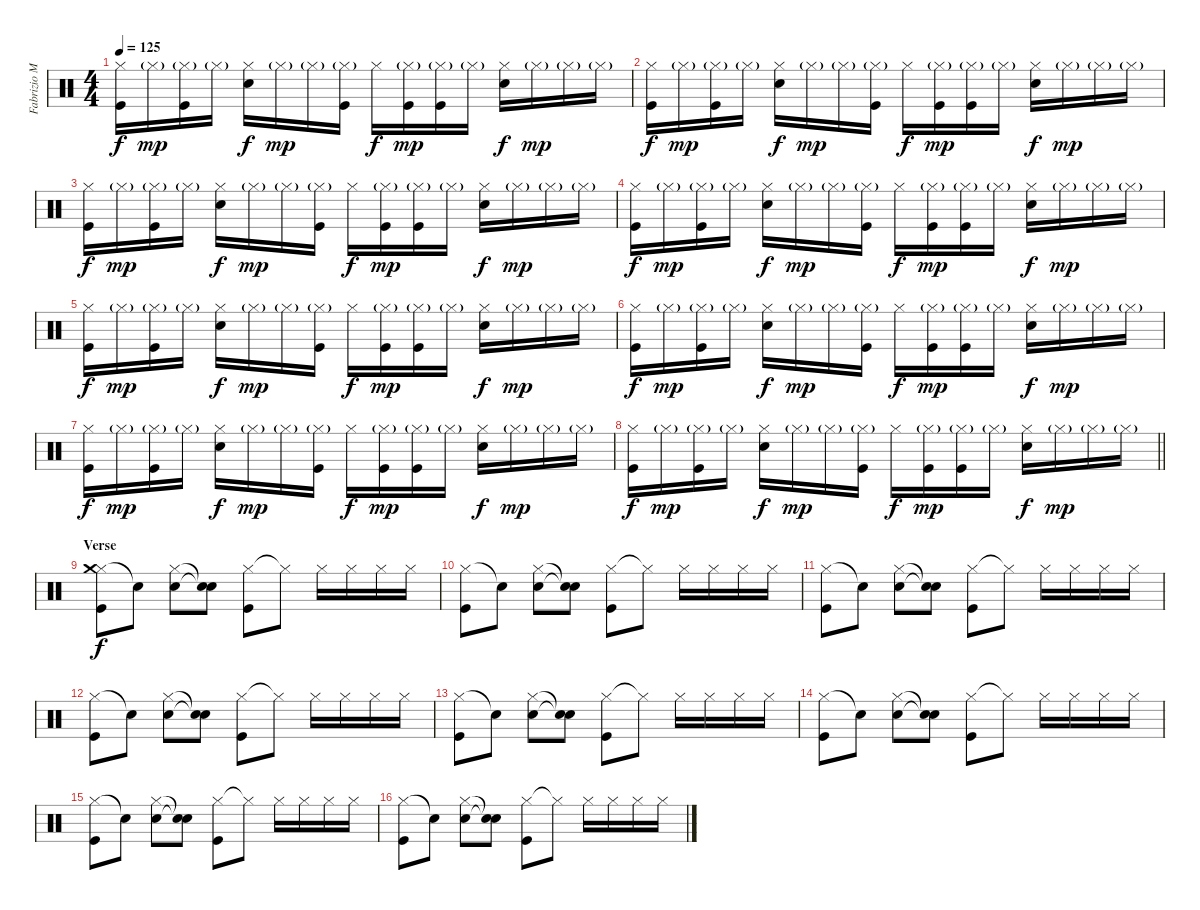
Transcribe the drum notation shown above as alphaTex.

\track ("Fabrizio Moretti" "Fabrizio M") {instrument percussion}
\staff {score}
\articulation defaults
\ts (4 4)
\tempo 125
\clef neutral
\ks c
("Hi-Hat (closed)" "Kick (hit)").16{dy f} "Hi-Hat (closed)"{g}.16{dy mp} ("Hi-Hat (closed)"{g} "Kick (hit)").16 "Hi-Hat (closed)"{g}.16 ("Hi-Hat (closed)" "Electric Snare (hit)").16{dy f} "Hi-Hat (closed)"{g}.16{dy mp} "Hi-Hat (closed)"{g}.16 ("Hi-Hat (closed)"{g} "Kick (hit)").16 "Hi-Hat (closed)".16{dy f} ("Hi-Hat (closed)"{g} "Kick (hit)").16{dy mp} ("Hi-Hat (closed)"{g} "Kick (hit)").16 "Hi-Hat (closed)"{g}.16 ("Hi-Hat (closed)" "Electric Snare (hit)").16{dy f} "Hi-Hat (closed)"{g}.16{dy mp} "Hi-Hat (closed)"{g}.16 "Hi-Hat (closed)"{g}.16 |
("Hi-Hat (closed)" "Kick (hit)").16{dy f} "Hi-Hat (closed)"{g}.16{dy mp} ("Hi-Hat (closed)"{g} "Kick (hit)").16 "Hi-Hat (closed)"{g}.16 ("Hi-Hat (closed)" "Electric Snare (hit)").16{dy f} "Hi-Hat (closed)"{g}.16{dy mp} "Hi-Hat (closed)"{g}.16 ("Hi-Hat (closed)"{g} "Kick (hit)").16 "Hi-Hat (closed)".16{dy f} ("Hi-Hat (closed)"{g} "Kick (hit)").16{dy mp} ("Hi-Hat (closed)"{g} "Kick (hit)").16 "Hi-Hat (closed)"{g}.16 ("Hi-Hat (closed)" "Electric Snare (hit)").16{dy f} "Hi-Hat (closed)"{g}.16{dy mp} "Hi-Hat (closed)"{g}.16 "Hi-Hat (closed)"{g}.16 |
("Hi-Hat (closed)" "Kick (hit)").16{dy f} "Hi-Hat (closed)"{g}.16{dy mp} ("Hi-Hat (closed)"{g} "Kick (hit)").16 "Hi-Hat (closed)"{g}.16 ("Hi-Hat (closed)" "Electric Snare (hit)").16{dy f} "Hi-Hat (closed)"{g}.16{dy mp} "Hi-Hat (closed)"{g}.16 ("Hi-Hat (closed)"{g} "Kick (hit)").16 "Hi-Hat (closed)".16{dy f} ("Hi-Hat (closed)"{g} "Kick (hit)").16{dy mp} ("Hi-Hat (closed)"{g} "Kick (hit)").16 "Hi-Hat (closed)"{g}.16 ("Hi-Hat (closed)" "Electric Snare (hit)").16{dy f} "Hi-Hat (closed)"{g}.16{dy mp} "Hi-Hat (closed)"{g}.16 "Hi-Hat (closed)"{g}.16 |
("Hi-Hat (closed)" "Kick (hit)").16{dy f} "Hi-Hat (closed)"{g}.16{dy mp} ("Hi-Hat (closed)"{g} "Kick (hit)").16 "Hi-Hat (closed)"{g}.16 ("Hi-Hat (closed)" "Electric Snare (hit)").16{dy f} "Hi-Hat (closed)"{g}.16{dy mp} "Hi-Hat (closed)"{g}.16 ("Hi-Hat (closed)"{g} "Kick (hit)").16 "Hi-Hat (closed)".16{dy f} ("Hi-Hat (closed)"{g} "Kick (hit)").16{dy mp} ("Hi-Hat (closed)"{g} "Kick (hit)").16 "Hi-Hat (closed)"{g}.16 ("Hi-Hat (closed)" "Electric Snare (hit)").16{dy f} "Hi-Hat (closed)"{g}.16{dy mp} "Hi-Hat (closed)"{g}.16 "Hi-Hat (closed)"{g}.16 |
("Hi-Hat (closed)" "Kick (hit)").16{dy f} "Hi-Hat (closed)"{g}.16{dy mp} ("Hi-Hat (closed)"{g} "Kick (hit)").16 "Hi-Hat (closed)"{g}.16 ("Hi-Hat (closed)" "Electric Snare (hit)").16{dy f} "Hi-Hat (closed)"{g}.16{dy mp} "Hi-Hat (closed)"{g}.16 ("Hi-Hat (closed)"{g} "Kick (hit)").16 "Hi-Hat (closed)".16{dy f} ("Hi-Hat (closed)"{g} "Kick (hit)").16{dy mp} ("Hi-Hat (closed)"{g} "Kick (hit)").16 "Hi-Hat (closed)"{g}.16 ("Hi-Hat (closed)" "Electric Snare (hit)").16{dy f} "Hi-Hat (closed)"{g}.16{dy mp} "Hi-Hat (closed)"{g}.16 "Hi-Hat (closed)"{g}.16 |
("Hi-Hat (closed)" "Kick (hit)").16{dy f} "Hi-Hat (closed)"{g}.16{dy mp} ("Hi-Hat (closed)"{g} "Kick (hit)").16 "Hi-Hat (closed)"{g}.16 ("Hi-Hat (closed)" "Electric Snare (hit)").16{dy f} "Hi-Hat (closed)"{g}.16{dy mp} "Hi-Hat (closed)"{g}.16 ("Hi-Hat (closed)"{g} "Kick (hit)").16 "Hi-Hat (closed)".16{dy f} ("Hi-Hat (closed)"{g} "Kick (hit)").16{dy mp} ("Hi-Hat (closed)"{g} "Kick (hit)").16 "Hi-Hat (closed)"{g}.16 ("Hi-Hat (closed)" "Electric Snare (hit)").16{dy f} "Hi-Hat (closed)"{g}.16{dy mp} "Hi-Hat (closed)"{g}.16 "Hi-Hat (closed)"{g}.16 |
("Hi-Hat (closed)" "Kick (hit)").16{dy f} "Hi-Hat (closed)"{g}.16{dy mp} ("Hi-Hat (closed)"{g} "Kick (hit)").16 "Hi-Hat (closed)"{g}.16 ("Hi-Hat (closed)" "Electric Snare (hit)").16{dy f} "Hi-Hat (closed)"{g}.16{dy mp} "Hi-Hat (closed)"{g}.16 ("Hi-Hat (closed)"{g} "Kick (hit)").16 "Hi-Hat (closed)".16{dy f} ("Hi-Hat (closed)"{g} "Kick (hit)").16{dy mp} ("Hi-Hat (closed)"{g} "Kick (hit)").16 "Hi-Hat (closed)"{g}.16 ("Hi-Hat (closed)" "Electric Snare (hit)").16{dy f} "Hi-Hat (closed)"{g}.16{dy mp} "Hi-Hat (closed)"{g}.16 "Hi-Hat (closed)"{g}.16 |
\barLineRight lightlight
("Hi-Hat (closed)" "Kick (hit)").16{dy f} "Hi-Hat (closed)"{g}.16{dy mp} ("Hi-Hat (closed)"{g} "Kick (hit)").16 "Hi-Hat (closed)"{g}.16 ("Hi-Hat (closed)" "Electric Snare (hit)").16{dy f} "Hi-Hat (closed)"{g}.16{dy mp} "Hi-Hat (closed)"{g}.16 ("Hi-Hat (closed)"{g} "Kick (hit)").16 "Hi-Hat (closed)".16{dy f} ("Hi-Hat (closed)"{g} "Kick (hit)").16{dy mp} ("Hi-Hat (closed)"{g} "Kick (hit)").16 "Hi-Hat (closed)"{g}.16 ("Hi-Hat (closed)" "Electric Snare (hit)").16{dy f} "Hi-Hat (closed)"{g}.16{dy mp} "Hi-Hat (closed)"{g}.16 "Hi-Hat (closed)"{g}.16 |
\section ("" "Verse")
("Hi-Hat (closed)" "Crash medium (hit)" "Kick (hit)").8{dy f} "Snare (hit)"{t}.8 ("Hi-Hat (closed)" "Electric Snare (hit)").8 ("Snare (hit)"{t} "Snare (hit)"{t}).8 ("Hi-Hat (closed)" "Kick (hit)").8 "Hi-Hat (closed)"{t}.8 "Hi-Hat (closed)".16 "Hi-Hat (closed)".16 "Hi-Hat (closed)".16 "Hi-Hat (closed)".16 |
("Hi-Hat (closed)" "Kick (hit)").8 "Snare (hit)"{t}.8 ("Hi-Hat (closed)" "Electric Snare (hit)").8 ("Snare (hit)"{t} "Snare (hit)"{t}).8 ("Hi-Hat (closed)" "Kick (hit)").8 "Hi-Hat (closed)"{t}.8 "Hi-Hat (closed)".16 "Hi-Hat (closed)".16 "Hi-Hat (closed)".16 "Hi-Hat (closed)".16 |
("Hi-Hat (closed)" "Kick (hit)").8 "Snare (hit)"{t}.8 ("Hi-Hat (closed)" "Electric Snare (hit)").8 ("Snare (hit)"{t} "Snare (hit)"{t}).8 ("Hi-Hat (closed)" "Kick (hit)").8 "Hi-Hat (closed)"{t}.8 "Hi-Hat (closed)".16 "Hi-Hat (closed)".16 "Hi-Hat (closed)".16 "Hi-Hat (closed)".16 |
("Hi-Hat (closed)" "Kick (hit)").8 "Snare (hit)"{t}.8 ("Hi-Hat (closed)" "Electric Snare (hit)").8 ("Snare (hit)"{t} "Snare (hit)"{t}).8 ("Hi-Hat (closed)" "Kick (hit)").8 "Hi-Hat (closed)"{t}.8 "Hi-Hat (closed)".16 "Hi-Hat (closed)".16 "Hi-Hat (closed)".16 "Hi-Hat (closed)".16 |
("Hi-Hat (closed)" "Kick (hit)").8 "Snare (hit)"{t}.8 ("Hi-Hat (closed)" "Electric Snare (hit)").8 ("Snare (hit)"{t} "Snare (hit)"{t}).8 ("Hi-Hat (closed)" "Kick (hit)").8 "Hi-Hat (closed)"{t}.8 "Hi-Hat (closed)".16 "Hi-Hat (closed)".16 "Hi-Hat (closed)".16 "Hi-Hat (closed)".16 |
("Hi-Hat (closed)" "Kick (hit)").8 "Snare (hit)"{t}.8 ("Hi-Hat (closed)" "Electric Snare (hit)").8 ("Snare (hit)"{t} "Snare (hit)"{t}).8 ("Hi-Hat (closed)" "Kick (hit)").8 "Hi-Hat (closed)"{t}.8 "Hi-Hat (closed)".16 "Hi-Hat (closed)".16 "Hi-Hat (closed)".16 "Hi-Hat (closed)".16 |
("Hi-Hat (closed)" "Kick (hit)").8 "Snare (hit)"{t}.8 ("Hi-Hat (closed)" "Electric Snare (hit)").8 ("Snare (hit)"{t} "Snare (hit)"{t}).8 ("Hi-Hat (closed)" "Kick (hit)").8 "Hi-Hat (closed)"{t}.8 "Hi-Hat (closed)".16 "Hi-Hat (closed)".16 "Hi-Hat (closed)".16 "Hi-Hat (closed)".16 |
("Hi-Hat (closed)" "Kick (hit)").8 "Snare (hit)"{t}.8 ("Hi-Hat (closed)" "Electric Snare (hit)").8 ("Snare (hit)"{t} "Snare (hit)"{t}).8 ("Hi-Hat (closed)" "Kick (hit)").8 "Hi-Hat (closed)"{t}.8 "Hi-Hat (closed)".16 "Hi-Hat (closed)".16 "Hi-Hat (closed)".16 "Hi-Hat (closed)".16
